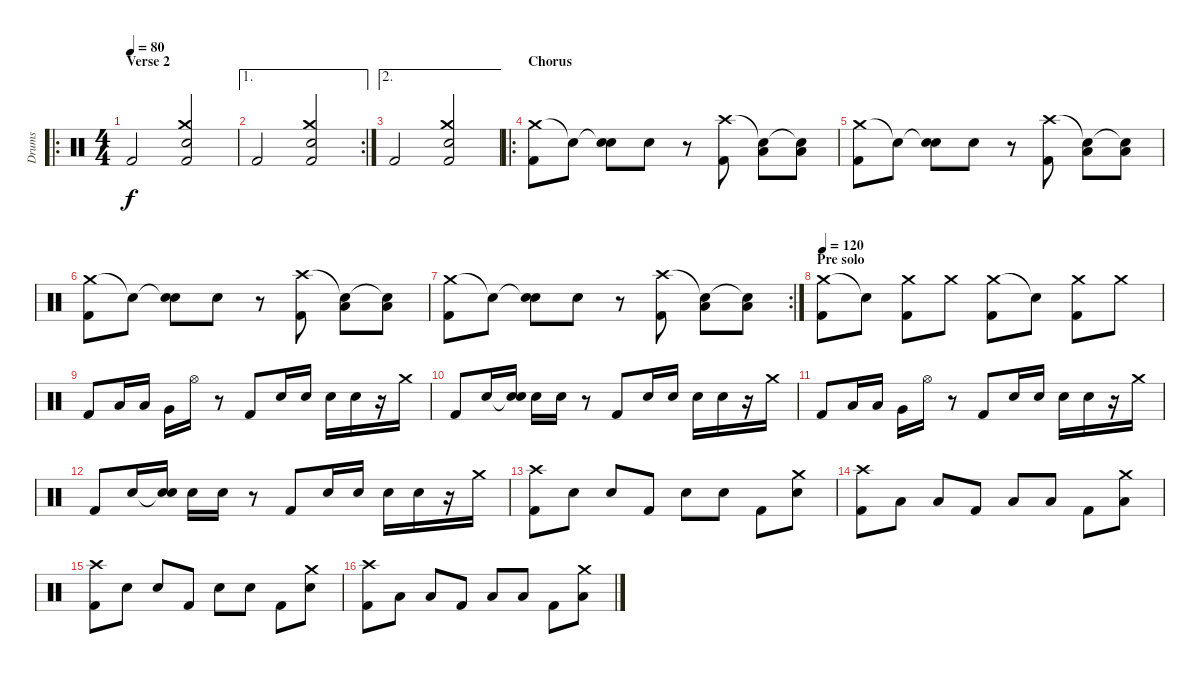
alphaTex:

\track ("Drums" "Drums") {instrument percussion}
\staff {score}
\articulation defaults
\ro
\ts (4 4)
\section ("" "Verse 2")
\tempo 80
\clef neutral
\ks c "Kick (hit) 2".2{dy f}
("Crash medium (hit)" "Snare (hit) 2" "Kick (hit) 2").2 |
\ae 1
\rc 2 "Kick (hit) 2".2
("Crash medium (hit)" "Snare (hit) 2" "Kick (hit) 2").2 |
\ae 2 "Kick (hit) 2".2
("Crash medium (hit)" "Snare (hit) 2" "Kick (hit) 2").2 |
\ro
\section ("" "Chorus")
("Crash medium (hit)" "Kick (hit) 2").8 "Snare (hit)"{t}.8 ("Snare (hit)"{t} "Snare (hit) 2").8 "Snare (hit) 2".8 r.8 ("Crash high (hit)" "Kick (hit) 2").8 ("Snare (hit)"{t} "Low Floor Tom (hit)").8 ("Snare (hit)"{t} "Low Tom (hit)").8 |
("Crash medium (hit)" "Kick (hit) 2").8 "Snare (hit)"{t}.8 ("Snare (hit)"{t} "Snare (hit) 2").8 "Snare (hit) 2".8 r.8 ("Crash high (hit)" "Kick (hit) 2").8 ("Snare (hit)"{t} "Low Floor Tom (hit)").8 ("Snare (hit)"{t} "Low Tom (hit)").8 |
("Crash medium (hit)" "Kick (hit) 2").8 "Snare (hit)"{t}.8 ("Snare (hit)"{t} "Snare (hit) 2").8 "Snare (hit) 2".8 r.8 ("Crash high (hit)" "Kick (hit) 2").8 ("Snare (hit)"{t} "Low Floor Tom (hit)").8 ("Snare (hit)"{t} "Low Tom (hit)").8 |
\rc 2
("Crash medium (hit)" "Kick (hit) 2").8 "Snare (hit)"{t}.8 ("Snare (hit)"{t} "Snare (hit) 2").8 "Snare (hit) 2".8 r.8 ("Crash high (hit)" "Kick (hit) 2").8 ("Snare (hit)"{t} "Low Floor Tom (hit)").8 ("Snare (hit)"{t} "Low Tom (hit)").8 |
\section ("" "Pre solo")
\tempo 120
("Crash medium (hit)" "Kick (hit) 2").8 "Snare (hit)"{t}.8 ("Crash medium (hit)" "Kick (hit) 2").8 "Crash medium (hit)".8 ("Crash medium (hit)" "Kick (hit) 2").8 "Snare (hit)"{t}.8 ("Crash medium (hit)" "Kick (hit) 2").8 "Crash medium (hit)".8 |
"Kick (hit) 2".8 "Low Floor Tom (hit)".16 "Low Tom (hit)".16 "Very Low Tom (hit)".16 "Hi-Hat (open)".16 r.8 "Kick (hit) 2".8 "Snare (hit) 2".16 "Snare (hit) 2".16 "Snare (hit) 2".16 "Snare (hit) 2".16 r.16 "Crash medium (hit)".16 |
"Kick (hit) 2".8 "Snare (hit) 2".16 ("Snare (hit)"{t} "Snare (hit) 2").16 "Snare (hit) 2".16 "Snare (hit) 2".16 r.8 "Kick (hit) 2".8 "Snare (hit) 2".16 "Snare (hit) 2".16 "Snare (hit) 2".16 "Snare (hit) 2".16 r.16 "Crash medium (hit)".16 |
"Kick (hit) 2".8 "Low Floor Tom (hit)".16 "Low Tom (hit)".16 "Very Low Tom (hit)".16 "Hi-Hat (open)".16 r.8 "Kick (hit) 2".8 "Snare (hit) 2".16 "Snare (hit) 2".16 "Snare (hit) 2".16 "Snare (hit) 2".16 r.16 "Crash medium (hit)".16 |
"Kick (hit) 2".8 "Snare (hit) 2".16 ("Snare (hit)"{t} "Snare (hit) 2").16 "Snare (hit) 2".16 "Snare (hit) 2".16 r.8 "Kick (hit) 2".8 "Snare (hit) 2".16 "Snare (hit) 2".16 "Snare (hit) 2".16 "Snare (hit) 2".16 r.16 "Crash medium (hit)".16 |
("Crash high (hit)" "Kick (hit) 2").8 "Snare (hit) 2".8 "Snare (hit) 2".8 "Kick (hit) 2".8 "Snare (hit) 2".8 "Snare (hit) 2".8 "Kick (hit) 2".8 ("Crash medium (hit)" "Snare (hit) 2").8 |
("Crash high (hit)" "Kick (hit) 2").8 "Low Floor Tom (hit)".8 "Low Floor Tom (hit)".8 "Kick (hit) 2".8 "Low Floor Tom (hit)".8 "Low Floor Tom (hit)".8 "Kick (hit) 2".8 ("Crash medium (hit)" "Low Tom (hit)").8 |
("Crash high (hit)" "Kick (hit) 2").8 "Snare (hit) 2".8 "Snare (hit) 2".8 "Kick (hit) 2".8 "Snare (hit) 2".8 "Snare (hit) 2".8 "Kick (hit) 2".8 ("Crash medium (hit)" "Snare (hit) 2").8 |
("Crash high (hit)" "Kick (hit) 2").8 "Low Floor Tom (hit)".8 "Low Floor Tom (hit)".8 "Kick (hit) 2".8 "Low Floor Tom (hit)".8 "Low Floor Tom (hit)".8 "Kick (hit) 2".8 ("Crash medium (hit)" "Low Tom (hit)").8
